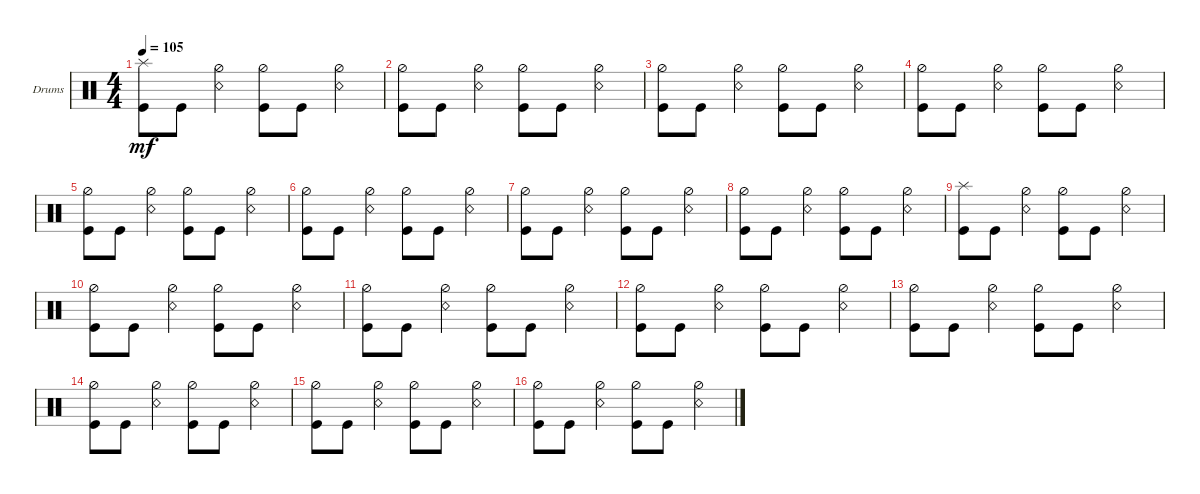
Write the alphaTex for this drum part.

\defaultSystemsLayout 4
\bracketExtendMode groupsimilarinstruments
\firstSystemTrackNameOrientation horizontal
\otherSystemsTrackNameOrientation horizontal
\track ("Drumkit" "Drums") {instrument percussion}
\staff {score}
\articulation defaults
\ts (4 4)
\tempo 105
\clef neutral
\ks c
("Kick (hit)" "Splash (hit)").8{dy mf} "Kick (hit)".8 ("Snare (rim shot)" "Hi-Hat (half)").4 ("Hi-Hat (half)" "Kick (hit)").8 "Kick (hit)".8 ("Snare (rim shot)" "Hi-Hat (half)").4 |
("Hi-Hat (half)" "Kick (hit)").8 "Kick (hit)".8 ("Snare (rim shot)" "Hi-Hat (half)").4 ("Hi-Hat (half)" "Kick (hit)").8 "Kick (hit)".8 ("Snare (rim shot)" "Hi-Hat (half)").4 |
("Hi-Hat (half)" "Kick (hit)").8 "Kick (hit)".8 ("Snare (rim shot)" "Hi-Hat (half)").4 ("Hi-Hat (half)" "Kick (hit)").8 "Kick (hit)".8 ("Snare (rim shot)" "Hi-Hat (half)").4 |
("Hi-Hat (half)" "Kick (hit)").8 "Kick (hit)".8 ("Snare (rim shot)" "Hi-Hat (half)").4 ("Hi-Hat (half)" "Kick (hit)").8 "Kick (hit)".8 ("Snare (rim shot)" "Hi-Hat (half)").4 |
("Hi-Hat (half)" "Kick (hit)").8 "Kick (hit)".8 ("Snare (rim shot)" "Hi-Hat (half)").4 ("Hi-Hat (half)" "Kick (hit)").8 "Kick (hit)".8 ("Snare (rim shot)" "Hi-Hat (half)").4 |
("Hi-Hat (half)" "Kick (hit)").8 "Kick (hit)".8 ("Snare (rim shot)" "Hi-Hat (half)").4 ("Hi-Hat (half)" "Kick (hit)").8 "Kick (hit)".8 ("Snare (rim shot)" "Hi-Hat (half)").4 |
("Hi-Hat (half)" "Kick (hit)").8 "Kick (hit)".8 ("Snare (rim shot)" "Hi-Hat (half)").4 ("Hi-Hat (half)" "Kick (hit)").8 "Kick (hit)".8 ("Snare (rim shot)" "Hi-Hat (half)").4 |
("Hi-Hat (half)" "Kick (hit)").8 "Kick (hit)".8 ("Snare (rim shot)" "Hi-Hat (half)").4 ("Hi-Hat (half)" "Kick (hit)").8 "Kick (hit)".8 ("Snare (rim shot)" "Hi-Hat (half)").4 |
("Kick (hit)" "Splash (hit)").8 "Kick (hit)".8 ("Snare (rim shot)" "Hi-Hat (half)").4 ("Hi-Hat (half)" "Kick (hit)").8 "Kick (hit)".8 ("Snare (rim shot)" "Hi-Hat (half)").4 |
("Hi-Hat (half)" "Kick (hit)").8 "Kick (hit)".8 ("Snare (rim shot)" "Hi-Hat (half)").4 ("Hi-Hat (half)" "Kick (hit)").8 "Kick (hit)".8 ("Snare (rim shot)" "Hi-Hat (half)").4 |
("Hi-Hat (half)" "Kick (hit)").8 "Kick (hit)".8 ("Snare (rim shot)" "Hi-Hat (half)").4 ("Hi-Hat (half)" "Kick (hit)").8 "Kick (hit)".8 ("Snare (rim shot)" "Hi-Hat (half)").4 |
("Hi-Hat (half)" "Kick (hit)").8 "Kick (hit)".8 ("Snare (rim shot)" "Hi-Hat (half)").4 ("Hi-Hat (half)" "Kick (hit)").8 "Kick (hit)".8 ("Snare (rim shot)" "Hi-Hat (half)").4 |
("Hi-Hat (half)" "Kick (hit)").8 "Kick (hit)".8 ("Snare (rim shot)" "Hi-Hat (half)").4 ("Hi-Hat (half)" "Kick (hit)").8 "Kick (hit)".8 ("Snare (rim shot)" "Hi-Hat (half)").4 |
("Hi-Hat (half)" "Kick (hit)").8 "Kick (hit)".8 ("Snare (rim shot)" "Hi-Hat (half)").4 ("Hi-Hat (half)" "Kick (hit)").8 "Kick (hit)".8 ("Snare (rim shot)" "Hi-Hat (half)").4 |
("Hi-Hat (half)" "Kick (hit)").8 "Kick (hit)".8 ("Snare (rim shot)" "Hi-Hat (half)").4 ("Hi-Hat (half)" "Kick (hit)").8 "Kick (hit)".8 ("Snare (rim shot)" "Hi-Hat (half)").4 |
("Hi-Hat (half)" "Kick (hit)").8 "Kick (hit)".8 ("Snare (rim shot)" "Hi-Hat (half)").4 ("Hi-Hat (half)" "Kick (hit)").8 "Kick (hit)".8 ("Snare (rim shot)" "Hi-Hat (half)").4
